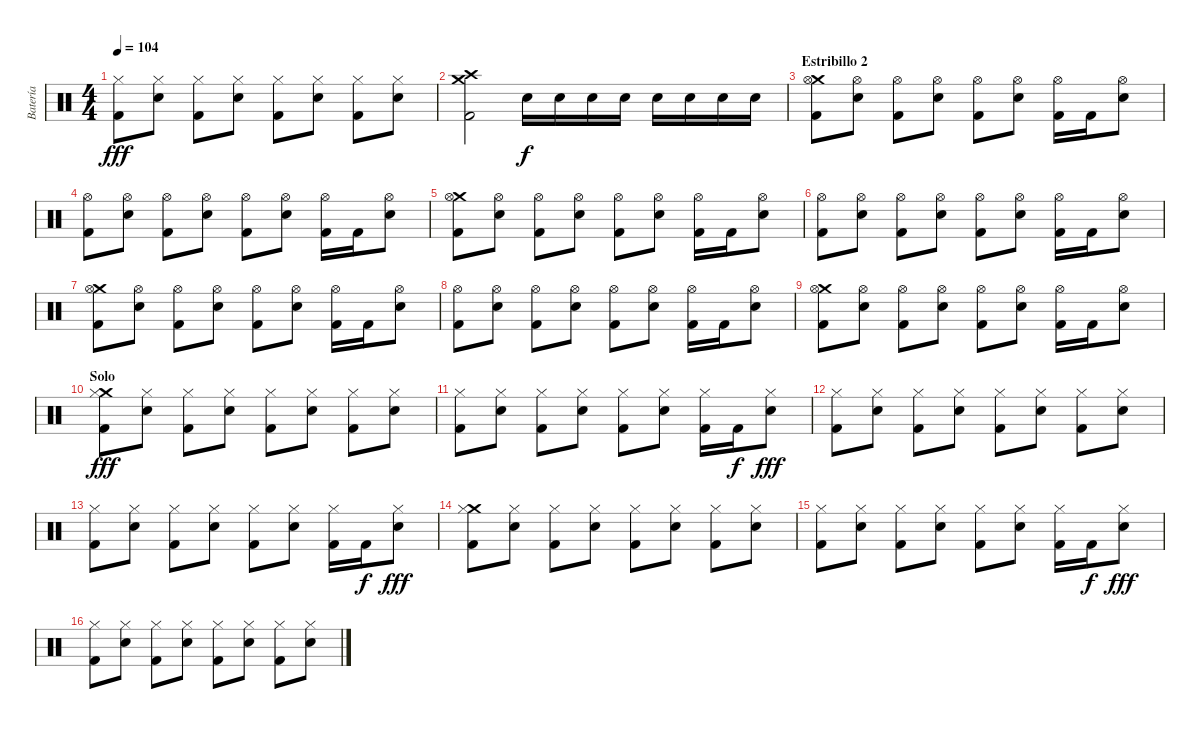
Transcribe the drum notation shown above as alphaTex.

\track ("Batería" "Batería") {instrument percussion}
\staff {score}
\articulation defaults
\ts (4 4)
\tempo 104
\clef neutral
\ks c
("Hi-Hat (closed)" "Kick (hit) 2").8{dy fff} ("Hi-Hat (closed)" "Snare (hit) 2").8 ("Hi-Hat (closed)" "Kick (hit) 2").8 ("Hi-Hat (closed)" "Snare (hit) 2").8 ("Hi-Hat (closed)" "Kick (hit) 2").8 ("Hi-Hat (closed)" "Snare (hit) 2").8 ("Hi-Hat (closed)" "Kick (hit) 2").8 ("Hi-Hat (closed)" "Snare (hit) 2").8 |
("Crash high (hit)" "Crash medium (hit)" "Kick (hit) 2").2 "Snare (hit) 2".16{dy f} "Snare (hit) 2".16 "Snare (hit) 2".16 "Snare (hit) 2".16 "Snare (hit) 2".16 "Snare (hit) 2".16 "Snare (hit) 2".16 "Snare (hit) 2".16 |
\section ("" "Estribillo 2")
("Crash medium (hit)" "Hi-Hat (open)" "Kick (hit) 2").8 ("Hi-Hat (open)" "Snare (hit) 2").8 ("Hi-Hat (open)" "Kick (hit) 2").8 ("Hi-Hat (open)" "Snare (hit) 2").8 ("Hi-Hat (open)" "Kick (hit) 2").8 ("Hi-Hat (open)" "Snare (hit) 2").8 ("Hi-Hat (open)" "Kick (hit) 2").16 "Kick (hit) 2".16 ("Hi-Hat (open)" "Snare (hit) 2").8 |
("Hi-Hat (open)" "Kick (hit) 2").8 ("Hi-Hat (open)" "Snare (hit) 2").8 ("Hi-Hat (open)" "Kick (hit) 2").8 ("Hi-Hat (open)" "Snare (hit) 2").8 ("Hi-Hat (open)" "Kick (hit) 2").8 ("Hi-Hat (open)" "Snare (hit) 2").8 ("Hi-Hat (open)" "Kick (hit) 2").16 "Kick (hit) 2".16 ("Hi-Hat (open)" "Snare (hit) 2").8 |
("Crash medium (hit)" "Hi-Hat (open)" "Kick (hit) 2").8 ("Hi-Hat (open)" "Snare (hit) 2").8 ("Hi-Hat (open)" "Kick (hit) 2").8 ("Hi-Hat (open)" "Snare (hit) 2").8 ("Hi-Hat (open)" "Kick (hit) 2").8 ("Hi-Hat (open)" "Snare (hit) 2").8 ("Hi-Hat (open)" "Kick (hit) 2").16 "Kick (hit) 2".16 ("Hi-Hat (open)" "Snare (hit) 2").8 |
("Hi-Hat (open)" "Kick (hit) 2").8 ("Hi-Hat (open)" "Snare (hit) 2").8 ("Hi-Hat (open)" "Kick (hit) 2").8 ("Hi-Hat (open)" "Snare (hit) 2").8 ("Hi-Hat (open)" "Kick (hit) 2").8 ("Hi-Hat (open)" "Snare (hit) 2").8 ("Hi-Hat (open)" "Kick (hit) 2").16 "Kick (hit) 2".16 ("Hi-Hat (open)" "Snare (hit) 2").8 |
("Crash medium (hit)" "Hi-Hat (open)" "Kick (hit) 2").8 ("Hi-Hat (open)" "Snare (hit) 2").8 ("Hi-Hat (open)" "Kick (hit) 2").8 ("Hi-Hat (open)" "Snare (hit) 2").8 ("Hi-Hat (open)" "Kick (hit) 2").8 ("Hi-Hat (open)" "Snare (hit) 2").8 ("Hi-Hat (open)" "Kick (hit) 2").16 "Kick (hit) 2".16 ("Hi-Hat (open)" "Snare (hit) 2").8 |
("Hi-Hat (open)" "Kick (hit) 2").8 ("Hi-Hat (open)" "Snare (hit) 2").8 ("Hi-Hat (open)" "Kick (hit) 2").8 ("Hi-Hat (open)" "Snare (hit) 2").8 ("Hi-Hat (open)" "Kick (hit) 2").8 ("Hi-Hat (open)" "Snare (hit) 2").8 ("Hi-Hat (open)" "Kick (hit) 2").16 "Kick (hit) 2".16 ("Hi-Hat (open)" "Snare (hit) 2").8 |
("Crash medium (hit)" "Hi-Hat (open)" "Kick (hit) 2").8 ("Hi-Hat (open)" "Snare (hit) 2").8 ("Hi-Hat (open)" "Kick (hit) 2").8 ("Hi-Hat (open)" "Snare (hit) 2").8 ("Hi-Hat (open)" "Kick (hit) 2").8 ("Hi-Hat (open)" "Snare (hit) 2").8 ("Hi-Hat (open)" "Kick (hit) 2").16 "Kick (hit) 2".16 ("Hi-Hat (open)" "Snare (hit) 2").8 |
\section ("" "Solo")
("Crash medium (hit)" "Hi-Hat (closed)" "Kick (hit) 2").8{dy fff} ("Hi-Hat (closed)" "Snare (hit) 2").8 ("Hi-Hat (closed)" "Kick (hit) 2").8 ("Hi-Hat (closed)" "Snare (hit) 2").8 ("Hi-Hat (closed)" "Kick (hit) 2").8 ("Hi-Hat (closed)" "Snare (hit) 2").8 ("Hi-Hat (closed)" "Kick (hit) 2").8 ("Hi-Hat (closed)" "Snare (hit) 2").8 |
("Hi-Hat (closed)" "Kick (hit) 2").8 ("Hi-Hat (closed)" "Snare (hit) 2").8 ("Hi-Hat (closed)" "Kick (hit) 2").8 ("Hi-Hat (closed)" "Snare (hit) 2").8 ("Hi-Hat (closed)" "Kick (hit) 2").8 ("Hi-Hat (closed)" "Snare (hit) 2").8 ("Hi-Hat (closed)" "Kick (hit) 2").16 "Kick (hit) 2".16{dy f} ("Hi-Hat (closed)" "Snare (hit) 2").8{dy fff} |
("Hi-Hat (closed)" "Kick (hit) 2").8 ("Hi-Hat (closed)" "Snare (hit) 2").8 ("Hi-Hat (closed)" "Kick (hit) 2").8 ("Hi-Hat (closed)" "Snare (hit) 2").8 ("Hi-Hat (closed)" "Kick (hit) 2").8 ("Hi-Hat (closed)" "Snare (hit) 2").8 ("Hi-Hat (closed)" "Kick (hit) 2").8 ("Hi-Hat (closed)" "Snare (hit) 2").8 |
("Hi-Hat (closed)" "Kick (hit) 2").8 ("Hi-Hat (closed)" "Snare (hit) 2").8 ("Hi-Hat (closed)" "Kick (hit) 2").8 ("Hi-Hat (closed)" "Snare (hit) 2").8 ("Hi-Hat (closed)" "Kick (hit) 2").8 ("Hi-Hat (closed)" "Snare (hit) 2").8 ("Hi-Hat (closed)" "Kick (hit) 2").16 "Kick (hit) 2".16{dy f} ("Hi-Hat (closed)" "Snare (hit) 2").8{dy fff} |
("Crash medium (hit)" "Hi-Hat (closed)" "Kick (hit) 2").8 ("Hi-Hat (closed)" "Snare (hit) 2").8 ("Hi-Hat (closed)" "Kick (hit) 2").8 ("Hi-Hat (closed)" "Snare (hit) 2").8 ("Hi-Hat (closed)" "Kick (hit) 2").8 ("Hi-Hat (closed)" "Snare (hit) 2").8 ("Hi-Hat (closed)" "Kick (hit) 2").8 ("Hi-Hat (closed)" "Snare (hit) 2").8 |
("Hi-Hat (closed)" "Kick (hit) 2").8 ("Hi-Hat (closed)" "Snare (hit) 2").8 ("Hi-Hat (closed)" "Kick (hit) 2").8 ("Hi-Hat (closed)" "Snare (hit) 2").8 ("Hi-Hat (closed)" "Kick (hit) 2").8 ("Hi-Hat (closed)" "Snare (hit) 2").8 ("Hi-Hat (closed)" "Kick (hit) 2").16 "Kick (hit) 2".16{dy f} ("Hi-Hat (closed)" "Snare (hit) 2").8{dy fff} |
("Hi-Hat (closed)" "Kick (hit) 2").8 ("Hi-Hat (closed)" "Snare (hit) 2").8 ("Hi-Hat (closed)" "Kick (hit) 2").8 ("Hi-Hat (closed)" "Snare (hit) 2").8 ("Hi-Hat (closed)" "Kick (hit) 2").8 ("Hi-Hat (closed)" "Snare (hit) 2").8 ("Hi-Hat (closed)" "Kick (hit) 2").8 ("Hi-Hat (closed)" "Snare (hit) 2").8
